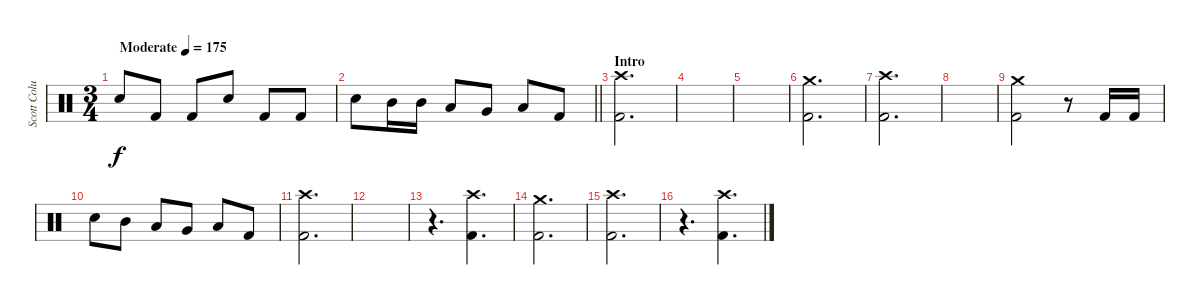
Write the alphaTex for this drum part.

\track ("Scott Columbus" "Scott Colu") {instrument percussion}
\staff {score}
\articulation defaults
\ts (3 4)
\tempo (175 "Moderate")
\clef neutral
\ks c "Snare (hit) 2".8{dy f} "Kick (hit) 2".8 "Kick (hit) 2".8 "Snare (hit) 2".8 "Kick (hit) 2".8 "Kick (hit) 2".8
|
\barLineRight lightlight "Snare (hit) 2".8 "Mid Tom (hit)".16 "Mid Tom (hit)".16 "Low Tom (hit)".8 "Very Low Tom (hit)".8 "Low Floor Tom (hit)".8 "Kick (hit) 2".8
|
\section ("" "Intro")
("Kick (hit) 2" "Crash high (hit)").2{d} |
|
|
("Kick (hit) 2" "Crash medium (hit)").2{d} |
("Kick (hit) 2" "Crash high (hit)").2{d} |
|
("Kick (hit) 2" "Crash medium (hit)").2 r.8 "Kick (hit) 2".16 "Kick (hit) 2".16 |
"Snare (hit) 2".8 "Mid Tom (hit)".8 "Low Tom (hit)".8 "Very Low Tom (hit)".8 "Low Floor Tom (hit)".8 "Kick (hit) 2".8 |
("Kick (hit) 2" "Crash high (hit)").2{d} |
|
r.4{d} ("Kick (hit) 2" "Crash high (hit)").4{d} |
("Kick (hit) 2" "Crash medium (hit)").2{d} |
("Kick (hit) 2" "Crash high (hit)").2{d} |
r.4{d} ("Kick (hit) 2" "Crash high (hit)").4{d}
